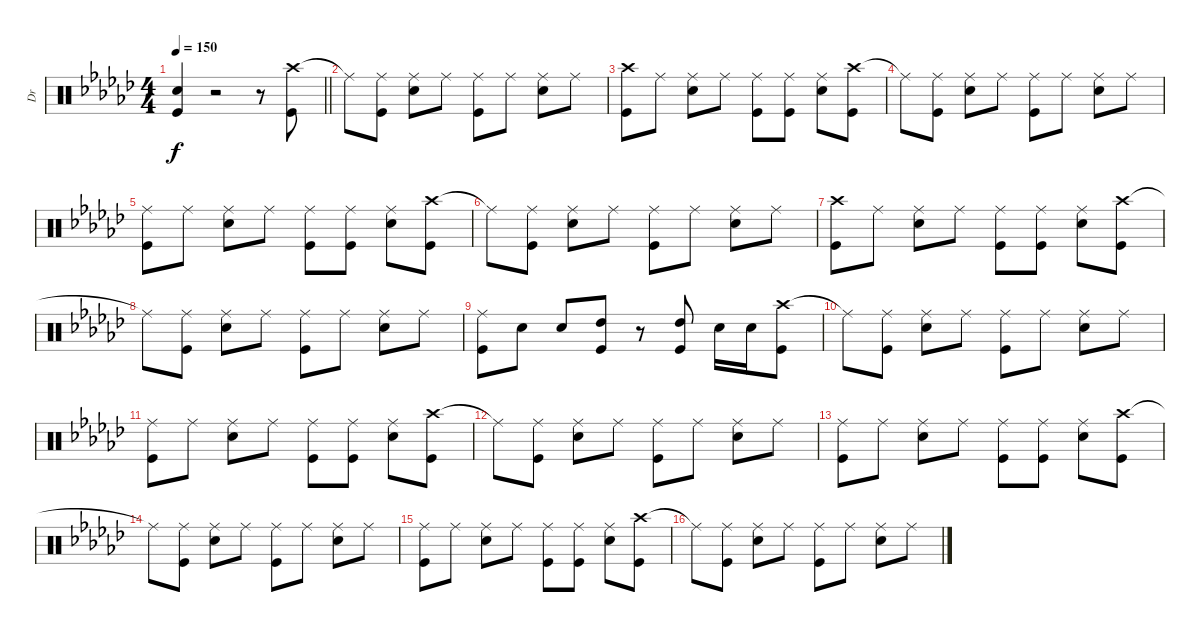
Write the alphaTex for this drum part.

\track ("Dr" "Dr") {instrument percussion}
\staff {score}
\articulation defaults
\ts (4 4)
\tempo 150
\clef neutral
\barLineRight lightlight
\ks gb
("Electric Snare (hit)" "Kick (hit)").4{dy f} r.2 r.8 ("Crash high (hit)" "Kick (hit)").8 |
"Ride (middle)"{t}.8 ("Ride (middle)" "Kick (hit)").8 ("Ride (middle)" "Electric Snare (hit)").8 "Ride (middle)".8 ("Ride (middle)" "Kick (hit)").8 "Ride (middle)".8 ("Ride (middle)" "Electric Snare (hit)").8 "Ride (middle)".8 |
("Crash high (hit)" "Kick (hit)").8 "Ride (middle)".8 ("Ride (middle)" "Electric Snare (hit)").8 "Ride (middle)".8 ("Ride (middle)" "Kick (hit)").8 ("Ride (middle)" "Kick (hit)").8 ("Ride (middle)" "Electric Snare (hit)").8 ("Crash high (hit)" "Kick (hit)").8 |
"Ride (middle)"{t}.8 ("Ride (middle)" "Kick (hit)").8 ("Ride (middle)" "Electric Snare (hit)").8 "Ride (middle)".8 ("Ride (middle)" "Kick (hit)").8 "Ride (middle)".8 ("Ride (middle)" "Electric Snare (hit)").8 "Ride (middle)".8 |
("Ride (middle)" "Kick (hit)").8 "Ride (middle)".8 ("Ride (middle)" "Electric Snare (hit)").8 "Ride (middle)".8 ("Ride (middle)" "Kick (hit)").8 ("Ride (middle)" "Kick (hit)").8 ("Ride (middle)" "Electric Snare (hit)").8 ("Crash high (hit)" "Kick (hit)").8 |
"Ride (middle)"{t}.8 ("Ride (middle)" "Kick (hit)").8 ("Ride (middle)" "Electric Snare (hit)").8 "Ride (middle)".8 ("Ride (middle)" "Kick (hit)").8 "Ride (middle)".8 ("Ride (middle)" "Electric Snare (hit)").8 "Ride (middle)".8 |
("Crash high (hit)" "Kick (hit)").8 "Ride (middle)".8 ("Ride (middle)" "Electric Snare (hit)").8 "Ride (middle)".8 ("Ride (middle)" "Kick (hit)").8 ("Ride (middle)" "Kick (hit)").8 ("Ride (middle)" "Electric Snare (hit)").8 ("Crash high (hit)" "Kick (hit)").8 |
"Ride (middle)"{t}.8 ("Ride (middle)" "Kick (hit)").8 ("Ride (middle)" "Electric Snare (hit)").8 "Ride (middle)".8 ("Ride (middle)" "Kick (hit)").8 "Ride (middle)".8 ("Ride (middle)" "Electric Snare (hit)").8 "Ride (middle)".8 |
("Ride (middle)" "Kick (hit)").8 "Electric Snare (hit)".8 "Electric Snare (hit)".8 ("High Tom (hit)" "Kick (hit)").8 r.8 ("High Tom (hit)" "Kick (hit)").8 "Electric Snare (hit)".16 "Electric Snare (hit)".16 ("Crash high (hit)" "Kick (hit)").8 |
"Ride (middle)"{t}.8 ("Ride (middle)" "Kick (hit)").8 ("Ride (middle)" "Electric Snare (hit)").8 "Ride (middle)".8 ("Ride (middle)" "Kick (hit)").8 "Ride (middle)".8 ("Ride (middle)" "Electric Snare (hit)").8 "Ride (middle)".8 |
("Ride (middle)" "Kick (hit)").8 "Ride (middle)".8 ("Ride (middle)" "Electric Snare (hit)").8 "Ride (middle)".8 ("Ride (middle)" "Kick (hit)").8 ("Ride (middle)" "Kick (hit)").8 ("Ride (middle)" "Electric Snare (hit)").8 ("Crash high (hit)" "Kick (hit)").8 |
"Ride (middle)"{t}.8 ("Ride (middle)" "Kick (hit)").8 ("Ride (middle)" "Electric Snare (hit)").8 "Ride (middle)".8 ("Ride (middle)" "Kick (hit)").8 "Ride (middle)".8 ("Ride (middle)" "Electric Snare (hit)").8 "Ride (middle)".8 |
("Ride (middle)" "Kick (hit)").8 "Ride (middle)".8 ("Ride (middle)" "Electric Snare (hit)").8 "Ride (middle)".8 ("Ride (middle)" "Kick (hit)").8 ("Ride (middle)" "Kick (hit)").8 ("Ride (middle)" "Electric Snare (hit)").8 ("Crash high (hit)" "Kick (hit)").8 |
"Ride (middle)"{t}.8 ("Ride (middle)" "Kick (hit)").8 ("Ride (middle)" "Electric Snare (hit)").8 "Ride (middle)".8 ("Ride (middle)" "Kick (hit)").8 "Ride (middle)".8 ("Ride (middle)" "Electric Snare (hit)").8 "Ride (middle)".8 |
("Ride (middle)" "Kick (hit)").8 "Ride (middle)".8 ("Ride (middle)" "Electric Snare (hit)").8 "Ride (middle)".8 ("Ride (middle)" "Kick (hit)").8 ("Ride (middle)" "Kick (hit)").8 ("Ride (middle)" "Electric Snare (hit)").8 ("Crash high (hit)" "Kick (hit)").8 |
"Ride (middle)"{t}.8 ("Ride (middle)" "Kick (hit)").8 ("Ride (middle)" "Electric Snare (hit)").8 "Ride (middle)".8 ("Ride (middle)" "Kick (hit)").8 "Ride (middle)".8 ("Ride (middle)" "Electric Snare (hit)").8 "Ride (middle)".8
